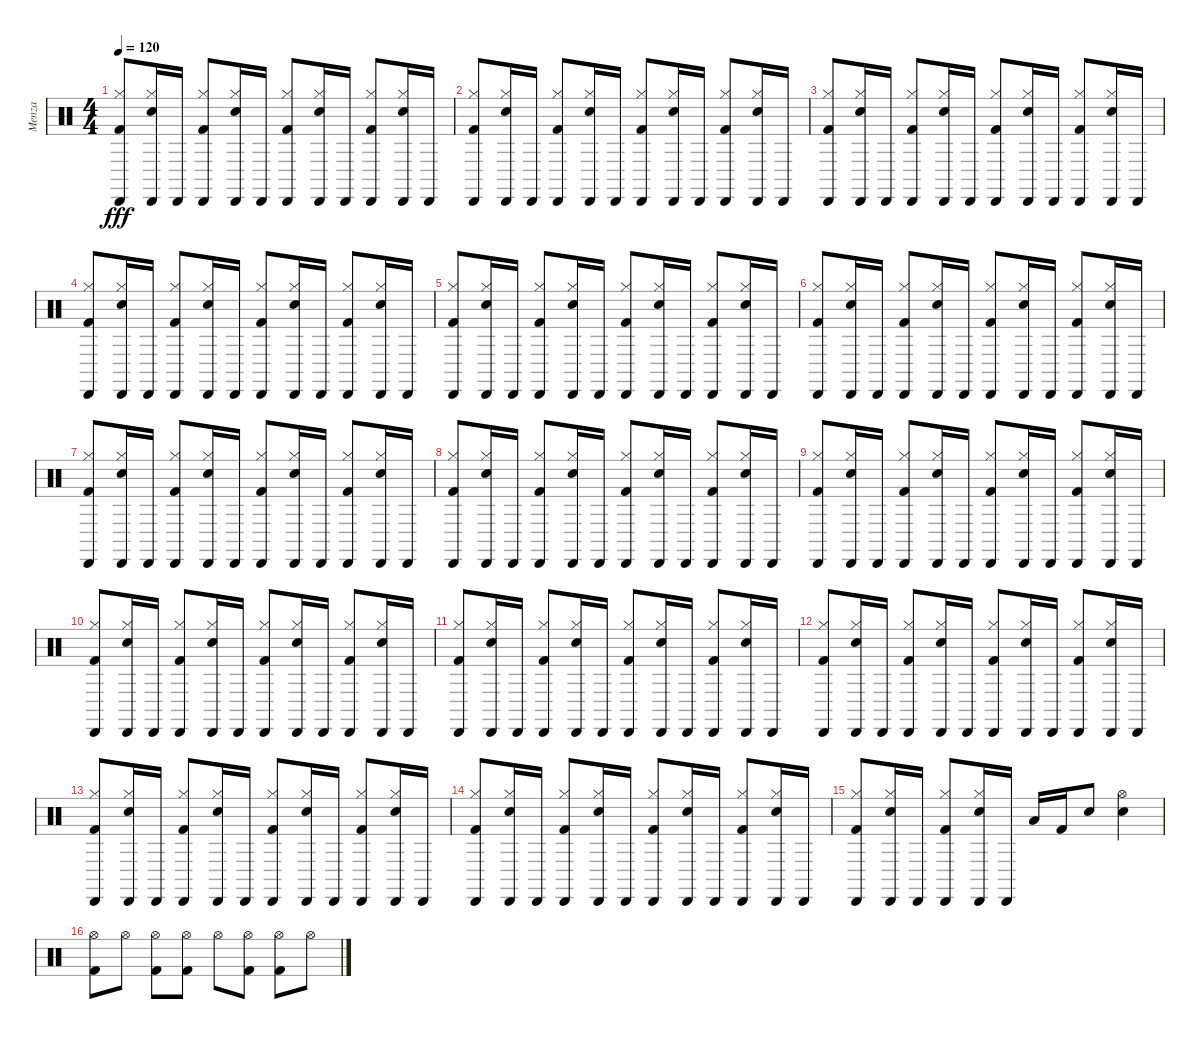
\track ("Menza" "Menza") {instrument percussion}
\staff {score}
\articulation defaults
\ts (4 4)
\tempo 120
\clef neutral
\ks c
("Cabasa (hit)" "Hi-Hat (closed)" "Kick (hit) 2").8{dy fff} ("Cabasa (hit)" "Hi-Hat (closed)" "Snare (hit) 2").16 "Cabasa (hit)".16 ("Cabasa (hit)" "Hi-Hat (closed)" "Kick (hit) 2").8 ("Cabasa (hit)" "Hi-Hat (closed)" "Snare (hit) 2").16 "Cabasa (hit)".16 ("Cabasa (hit)" "Hi-Hat (closed)" "Kick (hit) 2").8 ("Cabasa (hit)" "Hi-Hat (closed)" "Snare (hit) 2").16 "Cabasa (hit)".16 ("Cabasa (hit)" "Hi-Hat (closed)" "Kick (hit) 2").8 ("Cabasa (hit)" "Hi-Hat (closed)" "Snare (hit) 2").16 "Cabasa (hit)".16 |
("Cabasa (hit)" "Hi-Hat (closed)" "Kick (hit) 2").8 ("Cabasa (hit)" "Hi-Hat (closed)" "Snare (hit) 2").16 "Cabasa (hit)".16 ("Cabasa (hit)" "Hi-Hat (closed)" "Kick (hit) 2").8 ("Cabasa (hit)" "Hi-Hat (closed)" "Snare (hit) 2").16 "Cabasa (hit)".16 ("Cabasa (hit)" "Hi-Hat (closed)" "Kick (hit) 2").8 ("Cabasa (hit)" "Hi-Hat (closed)" "Snare (hit) 2").16 "Cabasa (hit)".16 ("Cabasa (hit)" "Hi-Hat (closed)" "Kick (hit) 2").8 ("Cabasa (hit)" "Hi-Hat (closed)" "Snare (hit) 2").16 "Cabasa (hit)".16 |
("Cabasa (hit)" "Hi-Hat (closed)" "Kick (hit) 2").8 ("Cabasa (hit)" "Hi-Hat (closed)" "Snare (hit) 2").16 "Cabasa (hit)".16 ("Cabasa (hit)" "Hi-Hat (closed)" "Kick (hit) 2").8 ("Cabasa (hit)" "Hi-Hat (closed)" "Snare (hit) 2").16 "Cabasa (hit)".16 ("Cabasa (hit)" "Hi-Hat (closed)" "Kick (hit) 2").8 ("Cabasa (hit)" "Hi-Hat (closed)" "Snare (hit) 2").16 "Cabasa (hit)".16 ("Cabasa (hit)" "Hi-Hat (closed)" "Kick (hit) 2").8 ("Cabasa (hit)" "Hi-Hat (closed)" "Snare (hit) 2").16 "Cabasa (hit)".16 |
("Cabasa (hit)" "Hi-Hat (closed)" "Kick (hit) 2").8 ("Cabasa (hit)" "Hi-Hat (closed)" "Snare (hit) 2").16 "Cabasa (hit)".16 ("Cabasa (hit)" "Hi-Hat (closed)" "Kick (hit) 2").8 ("Cabasa (hit)" "Hi-Hat (closed)" "Snare (hit) 2").16 "Cabasa (hit)".16 ("Cabasa (hit)" "Hi-Hat (closed)" "Kick (hit) 2").8 ("Cabasa (hit)" "Hi-Hat (closed)" "Snare (hit) 2").16 "Cabasa (hit)".16 ("Cabasa (hit)" "Hi-Hat (closed)" "Kick (hit) 2").8 ("Cabasa (hit)" "Hi-Hat (closed)" "Snare (hit) 2").16 "Cabasa (hit)".16 |
("Cabasa (hit)" "Hi-Hat (closed)" "Kick (hit) 2").8 ("Cabasa (hit)" "Hi-Hat (closed)" "Snare (hit) 2").16 "Cabasa (hit)".16 ("Cabasa (hit)" "Hi-Hat (closed)" "Kick (hit) 2").8 ("Cabasa (hit)" "Hi-Hat (closed)" "Snare (hit) 2").16 "Cabasa (hit)".16 ("Cabasa (hit)" "Hi-Hat (closed)" "Kick (hit) 2").8 ("Cabasa (hit)" "Hi-Hat (closed)" "Snare (hit) 2").16 "Cabasa (hit)".16 ("Cabasa (hit)" "Hi-Hat (closed)" "Kick (hit) 2").8 ("Cabasa (hit)" "Hi-Hat (closed)" "Snare (hit) 2").16 "Cabasa (hit)".16 |
("Cabasa (hit)" "Hi-Hat (closed)" "Kick (hit) 2").8 ("Cabasa (hit)" "Hi-Hat (closed)" "Snare (hit) 2").16 "Cabasa (hit)".16 ("Cabasa (hit)" "Hi-Hat (closed)" "Kick (hit) 2").8 ("Cabasa (hit)" "Hi-Hat (closed)" "Snare (hit) 2").16 "Cabasa (hit)".16 ("Cabasa (hit)" "Hi-Hat (closed)" "Kick (hit) 2").8 ("Cabasa (hit)" "Hi-Hat (closed)" "Snare (hit) 2").16 "Cabasa (hit)".16 ("Cabasa (hit)" "Hi-Hat (closed)" "Kick (hit) 2").8 ("Cabasa (hit)" "Hi-Hat (closed)" "Snare (hit) 2").16 "Cabasa (hit)".16 |
("Cabasa (hit)" "Hi-Hat (closed)" "Kick (hit) 2").8 ("Cabasa (hit)" "Hi-Hat (closed)" "Snare (hit) 2").16 "Cabasa (hit)".16 ("Cabasa (hit)" "Hi-Hat (closed)" "Kick (hit) 2").8 ("Cabasa (hit)" "Hi-Hat (closed)" "Snare (hit) 2").16 "Cabasa (hit)".16 ("Cabasa (hit)" "Hi-Hat (closed)" "Kick (hit) 2").8 ("Cabasa (hit)" "Hi-Hat (closed)" "Snare (hit) 2").16 "Cabasa (hit)".16 ("Cabasa (hit)" "Hi-Hat (closed)" "Kick (hit) 2").8 ("Cabasa (hit)" "Hi-Hat (closed)" "Snare (hit) 2").16 "Cabasa (hit)".16 |
("Cabasa (hit)" "Hi-Hat (closed)" "Kick (hit) 2").8 ("Cabasa (hit)" "Hi-Hat (closed)" "Snare (hit) 2").16 "Cabasa (hit)".16 ("Cabasa (hit)" "Hi-Hat (closed)" "Kick (hit) 2").8 ("Cabasa (hit)" "Hi-Hat (closed)" "Snare (hit) 2").16 "Cabasa (hit)".16 ("Cabasa (hit)" "Hi-Hat (closed)" "Kick (hit) 2").8 ("Cabasa (hit)" "Hi-Hat (closed)" "Snare (hit) 2").16 "Cabasa (hit)".16 ("Cabasa (hit)" "Hi-Hat (closed)" "Kick (hit) 2").8 ("Cabasa (hit)" "Hi-Hat (closed)" "Snare (hit) 2").16 "Cabasa (hit)".16 |
("Cabasa (hit)" "Hi-Hat (closed)" "Kick (hit) 2").8 ("Cabasa (hit)" "Hi-Hat (closed)" "Snare (hit) 2").16 "Cabasa (hit)".16 ("Cabasa (hit)" "Hi-Hat (closed)" "Kick (hit) 2").8 ("Cabasa (hit)" "Hi-Hat (closed)" "Snare (hit) 2").16 "Cabasa (hit)".16 ("Cabasa (hit)" "Hi-Hat (closed)" "Kick (hit) 2").8 ("Cabasa (hit)" "Hi-Hat (closed)" "Snare (hit) 2").16 "Cabasa (hit)".16 ("Cabasa (hit)" "Hi-Hat (closed)" "Kick (hit) 2").8 ("Cabasa (hit)" "Hi-Hat (closed)" "Snare (hit) 2").16 "Cabasa (hit)".16 |
("Cabasa (hit)" "Hi-Hat (closed)" "Kick (hit) 2").8 ("Cabasa (hit)" "Hi-Hat (closed)" "Snare (hit) 2").16 "Cabasa (hit)".16 ("Cabasa (hit)" "Hi-Hat (closed)" "Kick (hit) 2").8 ("Cabasa (hit)" "Hi-Hat (closed)" "Snare (hit) 2").16 "Cabasa (hit)".16 ("Cabasa (hit)" "Hi-Hat (closed)" "Kick (hit) 2").8 ("Cabasa (hit)" "Hi-Hat (closed)" "Snare (hit) 2").16 "Cabasa (hit)".16 ("Cabasa (hit)" "Hi-Hat (closed)" "Kick (hit) 2").8 ("Cabasa (hit)" "Hi-Hat (closed)" "Snare (hit) 2").16 "Cabasa (hit)".16 |
("Cabasa (hit)" "Hi-Hat (closed)" "Kick (hit) 2").8 ("Cabasa (hit)" "Hi-Hat (closed)" "Snare (hit) 2").16 "Cabasa (hit)".16 ("Cabasa (hit)" "Hi-Hat (closed)" "Kick (hit) 2").8 ("Cabasa (hit)" "Hi-Hat (closed)" "Snare (hit) 2").16 "Cabasa (hit)".16 ("Cabasa (hit)" "Hi-Hat (closed)" "Kick (hit) 2").8 ("Cabasa (hit)" "Hi-Hat (closed)" "Snare (hit) 2").16 "Cabasa (hit)".16 ("Cabasa (hit)" "Hi-Hat (closed)" "Kick (hit) 2").8 ("Cabasa (hit)" "Hi-Hat (closed)" "Snare (hit) 2").16 "Cabasa (hit)".16 |
("Cabasa (hit)" "Hi-Hat (closed)" "Kick (hit) 2").8 ("Cabasa (hit)" "Hi-Hat (closed)" "Snare (hit) 2").16 "Cabasa (hit)".16 ("Cabasa (hit)" "Hi-Hat (closed)" "Kick (hit) 2").8 ("Cabasa (hit)" "Hi-Hat (closed)" "Snare (hit) 2").16 "Cabasa (hit)".16 ("Cabasa (hit)" "Hi-Hat (closed)" "Kick (hit) 2").8 ("Cabasa (hit)" "Hi-Hat (closed)" "Snare (hit) 2").16 "Cabasa (hit)".16 ("Cabasa (hit)" "Hi-Hat (closed)" "Kick (hit) 2").8 ("Cabasa (hit)" "Hi-Hat (closed)" "Snare (hit) 2").16 "Cabasa (hit)".16 |
("Cabasa (hit)" "Hi-Hat (closed)" "Kick (hit) 2").8 ("Cabasa (hit)" "Hi-Hat (closed)" "Snare (hit) 2").16 "Cabasa (hit)".16 ("Cabasa (hit)" "Hi-Hat (closed)" "Kick (hit) 2").8 ("Cabasa (hit)" "Hi-Hat (closed)" "Snare (hit) 2").16 "Cabasa (hit)".16 ("Cabasa (hit)" "Hi-Hat (closed)" "Kick (hit) 2").8 ("Cabasa (hit)" "Hi-Hat (closed)" "Snare (hit) 2").16 "Cabasa (hit)".16 ("Cabasa (hit)" "Hi-Hat (closed)" "Kick (hit) 2").8 ("Cabasa (hit)" "Hi-Hat (closed)" "Snare (hit) 2").16 "Cabasa (hit)".16 |
("Cabasa (hit)" "Hi-Hat (closed)" "Kick (hit) 2").8 ("Cabasa (hit)" "Hi-Hat (closed)" "Snare (hit) 2").16 "Cabasa (hit)".16 ("Cabasa (hit)" "Hi-Hat (closed)" "Kick (hit) 2").8 ("Cabasa (hit)" "Hi-Hat (closed)" "Snare (hit) 2").16 "Cabasa (hit)".16 ("Cabasa (hit)" "Hi-Hat (closed)" "Kick (hit) 2").8 ("Cabasa (hit)" "Hi-Hat (closed)" "Snare (hit) 2").16 "Cabasa (hit)".16 ("Cabasa (hit)" "Hi-Hat (closed)" "Kick (hit) 2").8 ("Cabasa (hit)" "Hi-Hat (closed)" "Snare (hit) 2").16 "Cabasa (hit)".16 |
("Cabasa (hit)" "Hi-Hat (closed)" "Kick (hit) 2").8 ("Cabasa (hit)" "Hi-Hat (closed)" "Snare (hit) 2").16 "Cabasa (hit)".16 ("Cabasa (hit)" "Hi-Hat (closed)" "Kick (hit) 2").8 ("Cabasa (hit)" "Hi-Hat (closed)" "Snare (hit) 2").16 "Cabasa (hit)".16 "Low Floor Tom (hit)".16 "Kick (hit) 2".16 "Snare (hit) 2".8 ("Snare (hit) 2" "Hi-Hat (open)").4 |
("Hi-Hat (open)" "Kick (hit) 2").8 "Hi-Hat (open)".8 ("Hi-Hat (open)" "Kick (hit) 2").8 ("Hi-Hat (open)" "Kick (hit) 2").8 "Hi-Hat (open)".8 ("Hi-Hat (open)" "Kick (hit) 2").8 ("Hi-Hat (open)" "Kick (hit) 2").8 "Hi-Hat (open)".8
